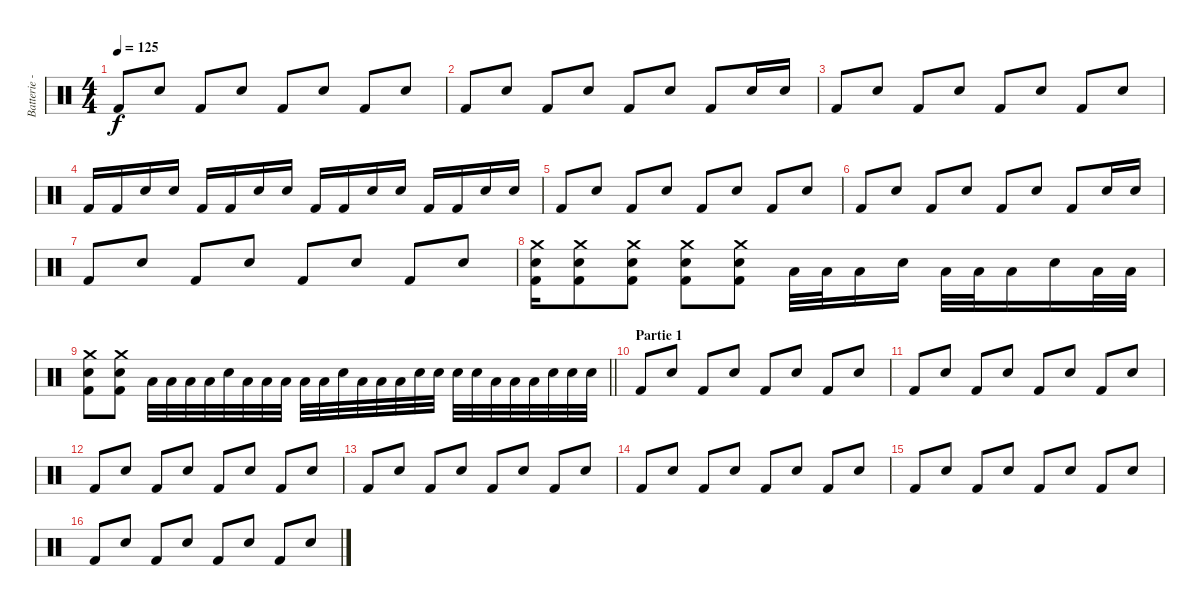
\track ("Batterie - Shane Gaalaas" "Batterie -") {instrument percussion}
\staff {score}
\articulation defaults
\ts (4 4)
\tempo 125
\clef neutral
\ks c "Kick (hit) 2".8{dy f} "Electric Snare (hit)".8 "Kick (hit) 2".8 "Electric Snare (hit)".8 "Kick (hit) 2".8 "Electric Snare (hit)".8 "Kick (hit) 2".8 "Electric Snare (hit)".8
|
"Kick (hit) 2".8 "Electric Snare (hit)".8 "Kick (hit) 2".8 "Electric Snare (hit)".8 "Kick (hit) 2".8 "Electric Snare (hit)".8 "Kick (hit) 2".8 "Electric Snare (hit)".16 "Electric Snare (hit)".16 |
"Kick (hit) 2".8 "Electric Snare (hit)".8 "Kick (hit) 2".8 "Electric Snare (hit)".8 "Kick (hit) 2".8 "Electric Snare (hit)".8 "Kick (hit) 2".8 "Electric Snare (hit)".8 |
"Kick (hit) 2".16 "Kick (hit) 2".16 "Electric Snare (hit)".16 "Electric Snare (hit)".16 "Kick (hit) 2".16 "Kick (hit) 2".16 "Electric Snare (hit)".16 "Electric Snare (hit)".16 "Kick (hit) 2".16 "Kick (hit) 2".16 "Electric Snare (hit)".16 "Electric Snare (hit)".16 "Kick (hit) 2".16 "Kick (hit) 2".16 "Electric Snare (hit)".16 "Electric Snare (hit)".16 |
"Kick (hit) 2".8 "Electric Snare (hit)".8 "Kick (hit) 2".8 "Electric Snare (hit)".8 "Kick (hit) 2".8 "Electric Snare (hit)".8 "Kick (hit) 2".8 "Electric Snare (hit)".8 |
"Kick (hit) 2".8 "Electric Snare (hit)".8 "Kick (hit) 2".8 "Electric Snare (hit)".8 "Kick (hit) 2".8 "Electric Snare (hit)".8 "Kick (hit) 2".8 "Electric Snare (hit)".16 "Electric Snare (hit)".16 |
"Kick (hit) 2".8 "Electric Snare (hit)".8 "Kick (hit) 2".8 "Electric Snare (hit)".8 "Kick (hit) 2".8 "Electric Snare (hit)".8 "Kick (hit) 2".8 "Electric Snare (hit)".8 |
("Crash medium (hit)" "Electric Snare (hit)" "Kick (hit) 2").16 ("Crash medium (hit)" "Electric Snare (hit)" "Kick (hit) 2").8 ("Crash medium (hit)" "Electric Snare (hit)" "Kick (hit) 2").8 ("Crash medium (hit)" "Electric Snare (hit)" "Kick (hit) 2").8 ("Crash medium (hit)" "Electric Snare (hit)" "Kick (hit) 2").8 "Low Tom (hit)".32 "Low Tom (hit)".32 "Low Tom (hit)".16 "Electric Snare (hit)".16 "Low Tom (hit)".32 "Low Tom (hit)".32 "Low Tom (hit)".16 "Electric Snare (hit)".16 "Low Tom (hit)".32 "Low Tom (hit)".32 |
\barLineRight lightlight
("Crash medium (hit)" "Electric Snare (hit)" "Kick (hit) 2").8 ("Crash medium (hit)" "Electric Snare (hit)" "Kick (hit) 2").8 "Low Tom (hit)".32 "Low Tom (hit)".32 "Low Tom (hit)".32 "Low Tom (hit)".32 "Electric Snare (hit)".32 "Low Tom (hit)".32 "Low Tom (hit)".32 "Low Tom (hit)".32 "Low Tom (hit)".32 "Low Tom (hit)".32 "Electric Snare (hit)".32 "Low Tom (hit)".32 "Low Tom (hit)".32 "Low Tom (hit)".32 "Electric Snare (hit)".32 "Electric Snare (hit)".32 "Electric Snare (hit)".32 "Electric Snare (hit)".32 "Low Tom (hit)".32 "Low Tom (hit)".32 "Low Tom (hit)".32 "Electric Snare (hit)".32 "Electric Snare (hit)".32 "Electric Snare (hit)".32 |
\section ("" "Partie 1")
"Kick (hit) 2".8 "Electric Snare (hit)".8 "Kick (hit) 2".8 "Electric Snare (hit)".8 "Kick (hit) 2".8 "Electric Snare (hit)".8 "Kick (hit) 2".8 "Electric Snare (hit)".8 |
"Kick (hit) 2".8 "Electric Snare (hit)".8 "Kick (hit) 2".8 "Electric Snare (hit)".8 "Kick (hit) 2".8 "Electric Snare (hit)".8 "Kick (hit) 2".8 "Electric Snare (hit)".8 |
"Kick (hit) 2".8 "Electric Snare (hit)".8 "Kick (hit) 2".8 "Electric Snare (hit)".8 "Kick (hit) 2".8 "Electric Snare (hit)".8 "Kick (hit) 2".8 "Electric Snare (hit)".8 |
"Kick (hit) 2".8 "Electric Snare (hit)".8 "Kick (hit) 2".8 "Electric Snare (hit)".8 "Kick (hit) 2".8 "Electric Snare (hit)".8 "Kick (hit) 2".8 "Electric Snare (hit)".8 |
"Kick (hit) 2".8 "Electric Snare (hit)".8 "Kick (hit) 2".8 "Electric Snare (hit)".8 "Kick (hit) 2".8 "Electric Snare (hit)".8 "Kick (hit) 2".8 "Electric Snare (hit)".8 |
"Kick (hit) 2".8 "Electric Snare (hit)".8 "Kick (hit) 2".8 "Electric Snare (hit)".8 "Kick (hit) 2".8 "Electric Snare (hit)".8 "Kick (hit) 2".8 "Electric Snare (hit)".8 |
"Kick (hit) 2".8 "Electric Snare (hit)".8 "Kick (hit) 2".8 "Electric Snare (hit)".8 "Kick (hit) 2".8 "Electric Snare (hit)".8 "Kick (hit) 2".8 "Electric Snare (hit)".8
